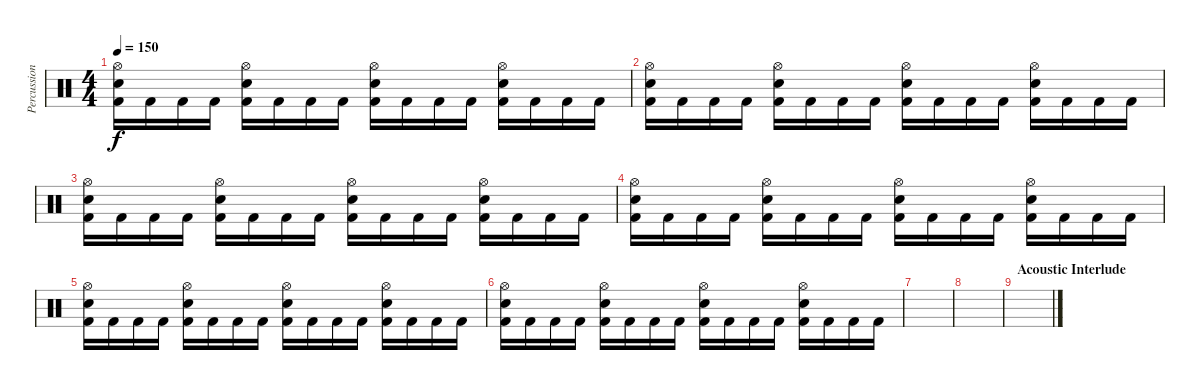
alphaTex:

\track ("Percussion" "Percussion") {instrument percussion}
\staff {score}
\articulation defaults
\ts (4 4)
\tempo 150
\clef neutral
\ks c
("Hi-Hat (open)" "Snare (hit) 2" "Kick (hit) 2").16{dy f} "Kick (hit) 2".16 "Kick (hit) 2".16 "Kick (hit) 2".16 ("Hi-Hat (open)" "Snare (hit) 2" "Kick (hit) 2").16 "Kick (hit) 2".16 "Kick (hit) 2".16 "Kick (hit) 2".16 ("Hi-Hat (open)" "Snare (hit) 2" "Kick (hit) 2").16 "Kick (hit) 2".16 "Kick (hit) 2".16 "Kick (hit) 2".16 ("Hi-Hat (open)" "Snare (hit) 2" "Kick (hit) 2").16 "Kick (hit) 2".16 "Kick (hit) 2".16 "Kick (hit) 2".16 |
("Hi-Hat (open)" "Snare (hit) 2" "Kick (hit) 2").16 "Kick (hit) 2".16 "Kick (hit) 2".16 "Kick (hit) 2".16 ("Hi-Hat (open)" "Snare (hit) 2" "Kick (hit) 2").16 "Kick (hit) 2".16 "Kick (hit) 2".16 "Kick (hit) 2".16 ("Hi-Hat (open)" "Snare (hit) 2" "Kick (hit) 2").16 "Kick (hit) 2".16 "Kick (hit) 2".16 "Kick (hit) 2".16 ("Hi-Hat (open)" "Snare (hit) 2" "Kick (hit) 2").16 "Kick (hit) 2".16 "Kick (hit) 2".16 "Kick (hit) 2".16 |
("Hi-Hat (open)" "Snare (hit) 2" "Kick (hit) 2").16 "Kick (hit) 2".16 "Kick (hit) 2".16 "Kick (hit) 2".16 ("Hi-Hat (open)" "Snare (hit) 2" "Kick (hit) 2").16 "Kick (hit) 2".16 "Kick (hit) 2".16 "Kick (hit) 2".16 ("Hi-Hat (open)" "Snare (hit) 2" "Kick (hit) 2").16 "Kick (hit) 2".16 "Kick (hit) 2".16 "Kick (hit) 2".16 ("Hi-Hat (open)" "Snare (hit) 2" "Kick (hit) 2").16 "Kick (hit) 2".16 "Kick (hit) 2".16 "Kick (hit) 2".16 |
("Hi-Hat (open)" "Snare (hit) 2" "Kick (hit) 2").16 "Kick (hit) 2".16 "Kick (hit) 2".16 "Kick (hit) 2".16 ("Hi-Hat (open)" "Snare (hit) 2" "Kick (hit) 2").16 "Kick (hit) 2".16 "Kick (hit) 2".16 "Kick (hit) 2".16 ("Hi-Hat (open)" "Snare (hit) 2" "Kick (hit) 2").16 "Kick (hit) 2".16 "Kick (hit) 2".16 "Kick (hit) 2".16 ("Hi-Hat (open)" "Snare (hit) 2" "Kick (hit) 2").16 "Kick (hit) 2".16 "Kick (hit) 2".16 "Kick (hit) 2".16 |
("Hi-Hat (open)" "Snare (hit) 2" "Kick (hit) 2").16 "Kick (hit) 2".16 "Kick (hit) 2".16 "Kick (hit) 2".16 ("Hi-Hat (open)" "Snare (hit) 2" "Kick (hit) 2").16 "Kick (hit) 2".16 "Kick (hit) 2".16 "Kick (hit) 2".16 ("Hi-Hat (open)" "Snare (hit) 2" "Kick (hit) 2").16 "Kick (hit) 2".16 "Kick (hit) 2".16 "Kick (hit) 2".16 ("Hi-Hat (open)" "Snare (hit) 2" "Kick (hit) 2").16 "Kick (hit) 2".16 "Kick (hit) 2".16 "Kick (hit) 2".16 |
("Hi-Hat (open)" "Snare (hit) 2" "Kick (hit) 2").16 "Kick (hit) 2".16 "Kick (hit) 2".16 "Kick (hit) 2".16 ("Hi-Hat (open)" "Snare (hit) 2" "Kick (hit) 2").16 "Kick (hit) 2".16 "Kick (hit) 2".16 "Kick (hit) 2".16 ("Hi-Hat (open)" "Snare (hit) 2" "Kick (hit) 2").16 "Kick (hit) 2".16 "Kick (hit) 2".16 "Kick (hit) 2".16 ("Hi-Hat (open)" "Snare (hit) 2" "Kick (hit) 2").16 "Kick (hit) 2".16 "Kick (hit) 2".16 "Kick (hit) 2".16 |
|
|
\section ("" "Acoustic Interlude")
